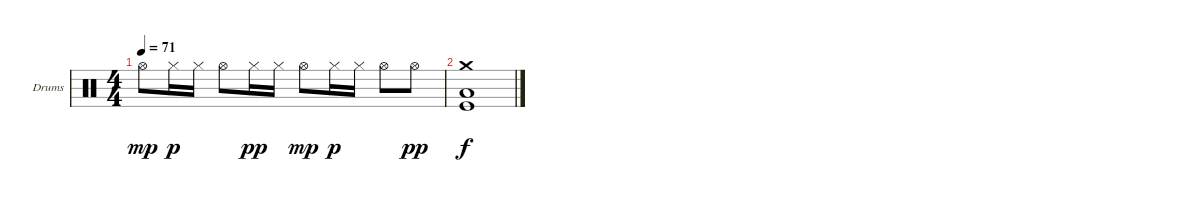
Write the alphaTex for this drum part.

\defaultSystemsLayout 4
\bracketExtendMode groupsimilarinstruments
\firstSystemTrackNameOrientation horizontal
\otherSystemsTrackNameOrientation horizontal
\track ("Drumkit" "Drums") {instrument percussion}
\staff {score}
\articulation defaults
\ts (4 4)
\tempo 71
\clef neutral
\ks c "Hi-Hat (open)".8{dy mp} "Hi-Hat (closed)".16{dy p} "Hi-Hat (closed)".16 "Hi-Hat (open)".8 "Hi-Hat (closed)".16{dy pp} "Hi-Hat (closed)".16 "Hi-Hat (open)".8{dy mp} "Hi-Hat (closed)".16{dy p} "Hi-Hat (closed)".16 "Hi-Hat (open)".8 "Hi-Hat (open)".8{dy pp}
|
("Crash medium (hit)" "Kick (hit)" "Low Tom (hit)").1{dy f}
